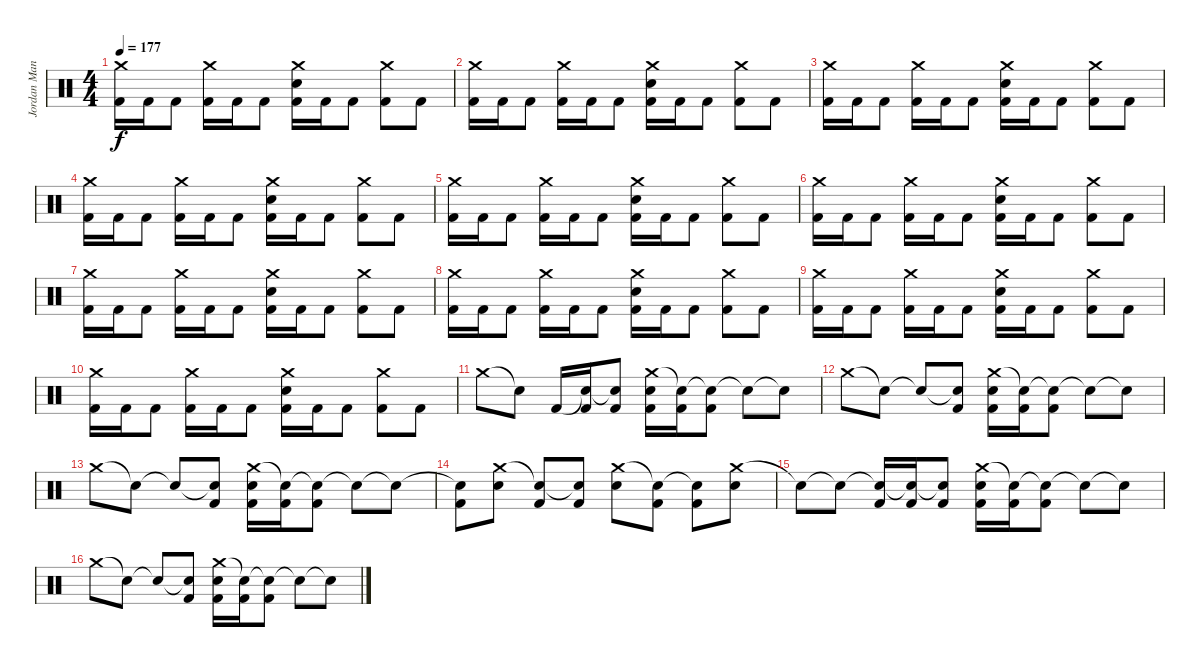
\track ("Jordan Mancino" "Jordan Man") {instrument percussion}
\staff {score}
\articulation defaults
\ts (4 4)
\tempo 177
\clef neutral
\ks c
("Crash medium (hit)" "Kick (hit) 2").16{dy f} "Kick (hit) 2".16 "Kick (hit) 2".8 ("Crash medium (hit)" "Kick (hit) 2").16 "Kick (hit) 2".16 "Kick (hit) 2".8 ("Crash medium (hit)" "Electric Snare (hit)" "Kick (hit) 2").16 "Kick (hit) 2".16 "Kick (hit) 2".8 ("Crash medium (hit)" "Kick (hit) 2").8 "Kick (hit) 2".8 |
("Crash medium (hit)" "Kick (hit) 2").16 "Kick (hit) 2".16 "Kick (hit) 2".8 ("Crash medium (hit)" "Kick (hit) 2").16 "Kick (hit) 2".16 "Kick (hit) 2".8 ("Crash medium (hit)" "Electric Snare (hit)" "Kick (hit) 2").16 "Kick (hit) 2".16 "Kick (hit) 2".8 ("Crash medium (hit)" "Kick (hit) 2").8 "Kick (hit) 2".8 |
("Crash medium (hit)" "Kick (hit) 2").16 "Kick (hit) 2".16 "Kick (hit) 2".8 ("Crash medium (hit)" "Kick (hit) 2").16 "Kick (hit) 2".16 "Kick (hit) 2".8 ("Crash medium (hit)" "Electric Snare (hit)" "Kick (hit) 2").16 "Kick (hit) 2".16 "Kick (hit) 2".8 ("Crash medium (hit)" "Kick (hit) 2").8 "Kick (hit) 2".8 |
("Crash medium (hit)" "Kick (hit) 2").16 "Kick (hit) 2".16 "Kick (hit) 2".8 ("Crash medium (hit)" "Kick (hit) 2").16 "Kick (hit) 2".16 "Kick (hit) 2".8 ("Crash medium (hit)" "Electric Snare (hit)" "Kick (hit) 2").16 "Kick (hit) 2".16 "Kick (hit) 2".8 ("Crash medium (hit)" "Kick (hit) 2").8 "Kick (hit) 2".8 |
("Crash medium (hit)" "Kick (hit) 2").16 "Kick (hit) 2".16 "Kick (hit) 2".8 ("Crash medium (hit)" "Kick (hit) 2").16 "Kick (hit) 2".16 "Kick (hit) 2".8 ("Crash medium (hit)" "Electric Snare (hit)" "Kick (hit) 2").16 "Kick (hit) 2".16 "Kick (hit) 2".8 ("Crash medium (hit)" "Kick (hit) 2").8 "Kick (hit) 2".8 |
("Crash medium (hit)" "Kick (hit) 2").16 "Kick (hit) 2".16 "Kick (hit) 2".8 ("Crash medium (hit)" "Kick (hit) 2").16 "Kick (hit) 2".16 "Kick (hit) 2".8 ("Crash medium (hit)" "Electric Snare (hit)" "Kick (hit) 2").16 "Kick (hit) 2".16 "Kick (hit) 2".8 ("Crash medium (hit)" "Kick (hit) 2").8 "Kick (hit) 2".8 |
("Crash medium (hit)" "Kick (hit) 2").16 "Kick (hit) 2".16 "Kick (hit) 2".8 ("Crash medium (hit)" "Kick (hit) 2").16 "Kick (hit) 2".16 "Kick (hit) 2".8 ("Crash medium (hit)" "Electric Snare (hit)" "Kick (hit) 2").16 "Kick (hit) 2".16 "Kick (hit) 2".8 ("Crash medium (hit)" "Kick (hit) 2").8 "Kick (hit) 2".8 |
("Crash medium (hit)" "Kick (hit) 2").16 "Kick (hit) 2".16 "Kick (hit) 2".8 ("Crash medium (hit)" "Kick (hit) 2").16 "Kick (hit) 2".16 "Kick (hit) 2".8 ("Crash medium (hit)" "Electric Snare (hit)" "Kick (hit) 2").16 "Kick (hit) 2".16 "Kick (hit) 2".8 ("Crash medium (hit)" "Kick (hit) 2").8 "Kick (hit) 2".8 |
("Crash medium (hit)" "Kick (hit) 2").16 "Kick (hit) 2".16 "Kick (hit) 2".8 ("Crash medium (hit)" "Kick (hit) 2").16 "Kick (hit) 2".16 "Kick (hit) 2".8 ("Crash medium (hit)" "Electric Snare (hit)" "Kick (hit) 2").16 "Kick (hit) 2".16 "Kick (hit) 2".8 ("Crash medium (hit)" "Kick (hit) 2").8 "Kick (hit) 2".8 |
("Crash medium (hit)" "Kick (hit) 2").16 "Kick (hit) 2".16 "Kick (hit) 2".8 ("Crash medium (hit)" "Kick (hit) 2").16 "Kick (hit) 2".16 "Kick (hit) 2".8 ("Crash medium (hit)" "Electric Snare (hit)" "Kick (hit) 2").16 "Kick (hit) 2".16 "Kick (hit) 2".8 ("Crash medium (hit)" "Kick (hit) 2").8 "Kick (hit) 2".8 |
"Crash medium (hit)".8 "Snare (hit)"{t}.8 "Kick (hit) 2".16 ("Snare (hit)"{t} "Kick (hit) 2").16 ("Snare (hit)"{t} "Kick (hit) 2").8 ("Crash medium (hit)" "Electric Snare (hit)" "Kick (hit) 2").16 ("Snare (hit)"{t} "Kick (hit) 2").16 ("Snare (hit)"{t} "Kick (hit) 2").8 "Snare (hit)"{t}.8 "Snare (hit)"{t}.8 |
"Crash medium (hit)".8 "Snare (hit)"{t}.8 "Snare (hit)"{t}.8 ("Snare (hit)"{t} "Kick (hit) 2").8 ("Crash medium (hit)" "Electric Snare (hit)" "Kick (hit) 2").16 ("Snare (hit)"{t} "Kick (hit) 2").16 ("Snare (hit)"{t} "Kick (hit) 2").8 "Snare (hit)"{t}.8 "Snare (hit)"{t}.8 |
"Crash medium (hit)".8 "Snare (hit)"{t}.8 "Snare (hit)"{t}.8 ("Snare (hit)"{t} "Kick (hit) 2").8 ("Crash medium (hit)" "Electric Snare (hit)" "Kick (hit) 2").16 ("Snare (hit)"{t} "Kick (hit) 2").16 ("Snare (hit)"{t} "Kick (hit) 2").8 "Snare (hit)"{t}.8 "Snare (hit)"{t}.8 |
("Snare (hit)"{t} "Kick (hit) 2").8 ("Crash medium (hit)" "Electric Snare (hit)").8 ("Snare (hit)"{t} "Kick (hit) 2").8 ("Snare (hit)"{t} "Kick (hit) 2").8 ("Crash medium (hit)" "Electric Snare (hit)").8 ("Snare (hit)"{t} "Kick (hit) 2").8 ("Snare (hit)"{t} "Kick (hit) 2").8 ("Crash medium (hit)" "Electric Snare (hit)").8 |
"Snare (hit)"{t}.8 "Snare (hit)"{t}.8 ("Snare (hit)"{t} "Kick (hit) 2").16 ("Snare (hit)"{t} "Kick (hit) 2").16 ("Snare (hit)"{t} "Kick (hit) 2").8 ("Crash medium (hit)" "Electric Snare (hit)" "Kick (hit) 2").16 ("Snare (hit)"{t} "Kick (hit) 2").16 ("Snare (hit)"{t} "Kick (hit) 2").8 "Snare (hit)"{t}.8 "Snare (hit)"{t}.8 |
"Crash medium (hit)".8 "Snare (hit)"{t}.8 "Snare (hit)"{t}.8 ("Snare (hit)"{t} "Kick (hit) 2").8 ("Crash medium (hit)" "Electric Snare (hit)" "Kick (hit) 2").16 ("Snare (hit)"{t} "Kick (hit) 2").16 ("Snare (hit)"{t} "Kick (hit) 2").8 "Snare (hit)"{t}.8 "Snare (hit)"{t}.8
